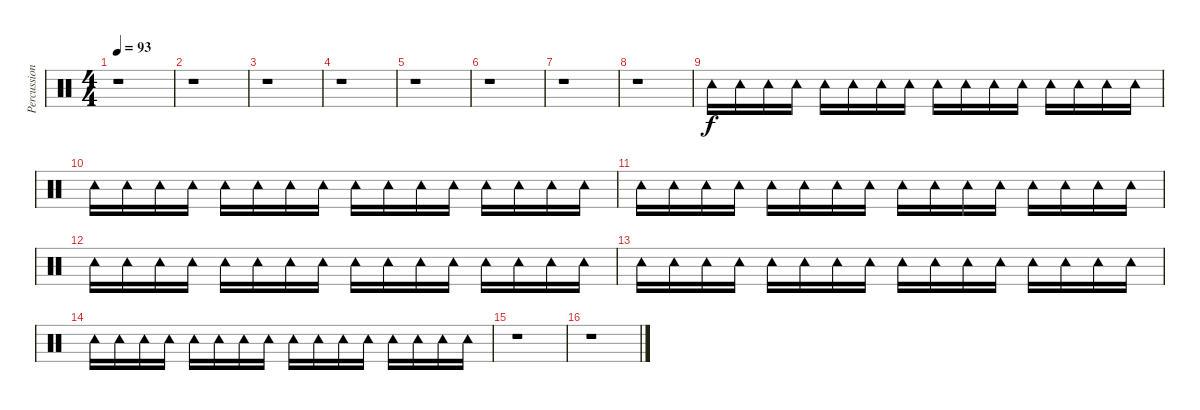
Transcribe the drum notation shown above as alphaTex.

\track ("Percussions" "Percussion") {instrument percussion}
\staff {score}
\articulation defaults
\ts (4 4)
\tempo 93
\clef neutral
\ks c
r.1{dy f} |
r.1 |
r.1 |
r.1 |
r.1 |
r.1 |
r.1 |
r.1 |
"Tambourine (hit)".16 "Tambourine (hit)".16 "Tambourine (hit)".16 "Tambourine (hit)".16 "Tambourine (hit)".16 "Tambourine (hit)".16 "Tambourine (hit)".16 "Tambourine (hit)".16 "Tambourine (hit)".16 "Tambourine (hit)".16 "Tambourine (hit)".16 "Tambourine (hit)".16 "Tambourine (hit)".16 "Tambourine (hit)".16 "Tambourine (hit)".16 "Tambourine (hit)".16 |
"Tambourine (hit)".16 "Tambourine (hit)".16 "Tambourine (hit)".16 "Tambourine (hit)".16 "Tambourine (hit)".16 "Tambourine (hit)".16 "Tambourine (hit)".16 "Tambourine (hit)".16 "Tambourine (hit)".16 "Tambourine (hit)".16 "Tambourine (hit)".16 "Tambourine (hit)".16 "Tambourine (hit)".16 "Tambourine (hit)".16 "Tambourine (hit)".16 "Tambourine (hit)".16 |
"Tambourine (hit)".16 "Tambourine (hit)".16 "Tambourine (hit)".16 "Tambourine (hit)".16 "Tambourine (hit)".16 "Tambourine (hit)".16 "Tambourine (hit)".16 "Tambourine (hit)".16 "Tambourine (hit)".16 "Tambourine (hit)".16 "Tambourine (hit)".16 "Tambourine (hit)".16 "Tambourine (hit)".16 "Tambourine (hit)".16 "Tambourine (hit)".16 "Tambourine (hit)".16 |
"Tambourine (hit)".16 "Tambourine (hit)".16 "Tambourine (hit)".16 "Tambourine (hit)".16 "Tambourine (hit)".16 "Tambourine (hit)".16 "Tambourine (hit)".16 "Tambourine (hit)".16 "Tambourine (hit)".16 "Tambourine (hit)".16 "Tambourine (hit)".16 "Tambourine (hit)".16 "Tambourine (hit)".16 "Tambourine (hit)".16 "Tambourine (hit)".16 "Tambourine (hit)".16 |
"Tambourine (hit)".16 "Tambourine (hit)".16 "Tambourine (hit)".16 "Tambourine (hit)".16 "Tambourine (hit)".16 "Tambourine (hit)".16 "Tambourine (hit)".16 "Tambourine (hit)".16 "Tambourine (hit)".16 "Tambourine (hit)".16 "Tambourine (hit)".16 "Tambourine (hit)".16 "Tambourine (hit)".16 "Tambourine (hit)".16 "Tambourine (hit)".16 "Tambourine (hit)".16 |
"Tambourine (hit)".16 "Tambourine (hit)".16 "Tambourine (hit)".16 "Tambourine (hit)".16 "Tambourine (hit)".16 "Tambourine (hit)".16 "Tambourine (hit)".16 "Tambourine (hit)".16 "Tambourine (hit)".16 "Tambourine (hit)".16 "Tambourine (hit)".16 "Tambourine (hit)".16 "Tambourine (hit)".16 "Tambourine (hit)".16 "Tambourine (hit)".16 "Tambourine (hit)".16 |
r.1 |
r.1
